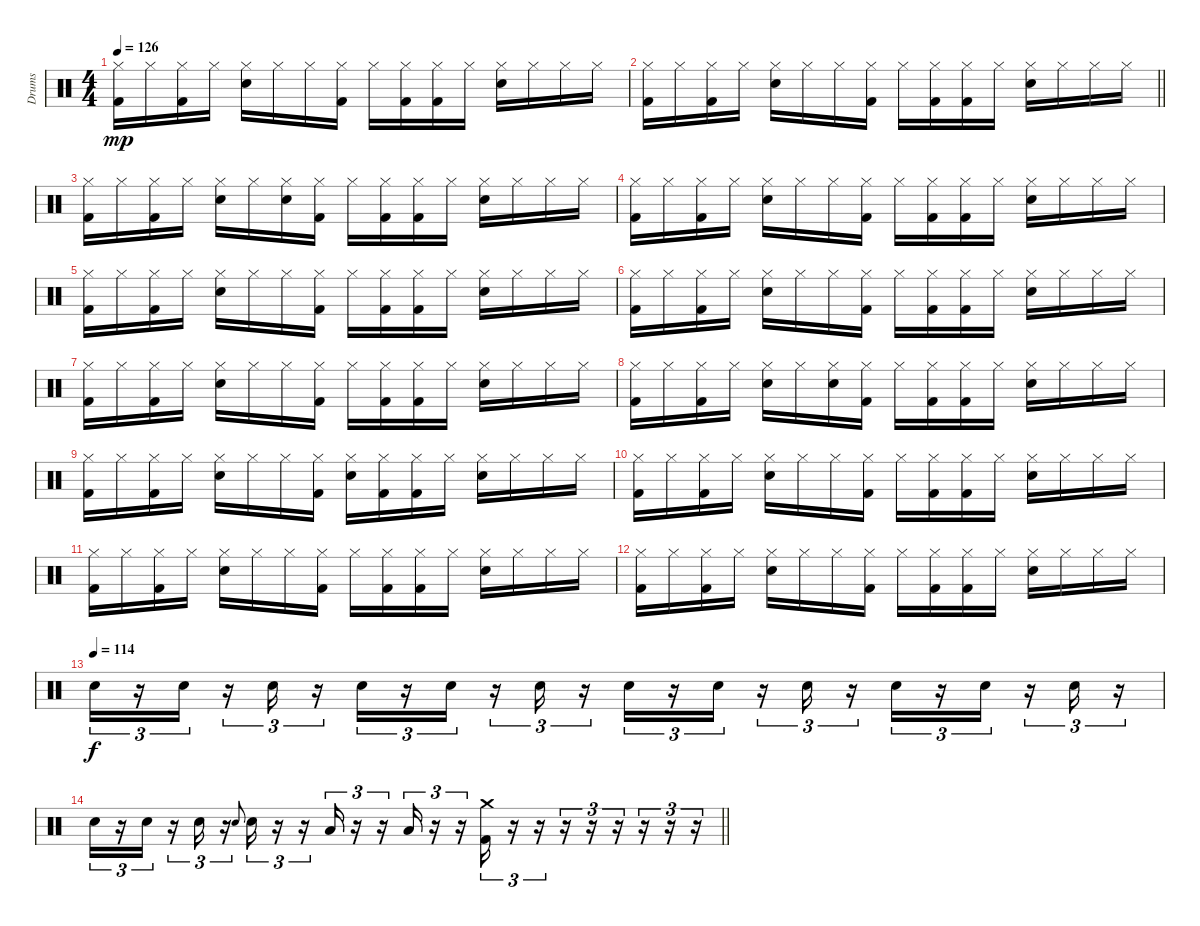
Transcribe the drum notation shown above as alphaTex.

\track ("Drums" "Drums") {instrument percussion}
\staff {score}
\articulation defaults
\ts (4 4)
\tempo 126
\clef neutral
\ks c
("Hi-Hat (closed)" "Kick (hit) 2").16{dy mp} "Hi-Hat (closed)".16 ("Hi-Hat (closed)" "Kick (hit) 2").16 "Hi-Hat (closed)".16 ("Hi-Hat (closed)" "Snare (hit) 2").16 "Hi-Hat (closed)".16 "Hi-Hat (closed)".16 ("Hi-Hat (closed)" "Kick (hit) 2").16 "Hi-Hat (closed)".16 ("Hi-Hat (closed)" "Kick (hit) 2").16 ("Hi-Hat (closed)" "Kick (hit) 2").16 "Hi-Hat (closed)".16 ("Hi-Hat (closed)" "Snare (hit) 2").16 "Hi-Hat (closed)".16 "Hi-Hat (closed)".16 "Hi-Hat (closed)".16 |
\barLineRight lightlight
("Hi-Hat (closed)" "Kick (hit) 2").16 "Hi-Hat (closed)".16 ("Hi-Hat (closed)" "Kick (hit) 2").16 "Hi-Hat (closed)".16 ("Hi-Hat (closed)" "Snare (hit) 2").16 "Hi-Hat (closed)".16 "Hi-Hat (closed)".16 ("Hi-Hat (closed)" "Kick (hit) 2").16 "Hi-Hat (closed)".16 ("Hi-Hat (closed)" "Kick (hit) 2").16 ("Hi-Hat (closed)" "Kick (hit) 2").16 "Hi-Hat (closed)".16 ("Hi-Hat (closed)" "Snare (hit) 2").16 "Hi-Hat (closed)".16 "Hi-Hat (closed)".16 "Hi-Hat (closed)".16 |
("Hi-Hat (closed)" "Kick (hit) 2").16 "Hi-Hat (closed)".16 ("Hi-Hat (closed)" "Kick (hit) 2").16 "Hi-Hat (closed)".16 ("Hi-Hat (closed)" "Snare (hit) 2").16 "Hi-Hat (closed)".16 ("Hi-Hat (closed)" "Snare (hit) 2").16 ("Hi-Hat (closed)" "Kick (hit) 2").16 "Hi-Hat (closed)".16 ("Hi-Hat (closed)" "Kick (hit) 2").16 ("Hi-Hat (closed)" "Kick (hit) 2").16 "Hi-Hat (closed)".16 ("Hi-Hat (closed)" "Snare (hit) 2").16 "Hi-Hat (closed)".16 "Hi-Hat (closed)".16 "Hi-Hat (closed)".16 |
("Hi-Hat (closed)" "Kick (hit) 2").16 "Hi-Hat (closed)".16 ("Hi-Hat (closed)" "Kick (hit) 2").16 "Hi-Hat (closed)".16 ("Hi-Hat (closed)" "Snare (hit) 2").16 "Hi-Hat (closed)".16 "Hi-Hat (closed)".16 ("Hi-Hat (closed)" "Kick (hit) 2").16 "Hi-Hat (closed)".16 ("Hi-Hat (closed)" "Kick (hit) 2").16 ("Hi-Hat (closed)" "Kick (hit) 2").16 "Hi-Hat (closed)".16 ("Hi-Hat (closed)" "Snare (hit) 2").16 "Hi-Hat (closed)".16 "Hi-Hat (closed)".16 "Hi-Hat (closed)".16 |
("Hi-Hat (closed)" "Kick (hit) 2").16 "Hi-Hat (closed)".16 ("Hi-Hat (closed)" "Kick (hit) 2").16 "Hi-Hat (closed)".16 ("Hi-Hat (closed)" "Snare (hit) 2").16 "Hi-Hat (closed)".16 "Hi-Hat (closed)".16 ("Hi-Hat (closed)" "Kick (hit) 2").16 "Hi-Hat (closed)".16 ("Hi-Hat (closed)" "Kick (hit) 2").16 ("Hi-Hat (closed)" "Kick (hit) 2").16 "Hi-Hat (closed)".16 ("Hi-Hat (closed)" "Snare (hit) 2").16 "Hi-Hat (closed)".16 "Hi-Hat (closed)".16 "Hi-Hat (closed)".16 |
("Hi-Hat (closed)" "Kick (hit) 2").16 "Hi-Hat (closed)".16 ("Hi-Hat (closed)" "Kick (hit) 2").16 "Hi-Hat (closed)".16 ("Hi-Hat (closed)" "Snare (hit) 2").16 "Hi-Hat (closed)".16 "Hi-Hat (closed)".16 ("Hi-Hat (closed)" "Kick (hit) 2").16 "Hi-Hat (closed)".16 ("Hi-Hat (closed)" "Kick (hit) 2").16 ("Hi-Hat (closed)" "Kick (hit) 2").16 "Hi-Hat (closed)".16 ("Hi-Hat (closed)" "Snare (hit) 2").16 "Hi-Hat (closed)".16 "Hi-Hat (closed)".16 "Hi-Hat (closed)".16 |
("Hi-Hat (closed)" "Kick (hit) 2").16 "Hi-Hat (closed)".16 ("Hi-Hat (closed)" "Kick (hit) 2").16 "Hi-Hat (closed)".16 ("Hi-Hat (closed)" "Snare (hit) 2").16 "Hi-Hat (closed)".16 "Hi-Hat (closed)".16 ("Hi-Hat (closed)" "Kick (hit) 2").16 "Hi-Hat (closed)".16 ("Hi-Hat (closed)" "Kick (hit) 2").16 ("Hi-Hat (closed)" "Kick (hit) 2").16 "Hi-Hat (closed)".16 ("Hi-Hat (closed)" "Snare (hit) 2").16 "Hi-Hat (closed)".16 "Hi-Hat (closed)".16 "Hi-Hat (closed)".16 |
("Hi-Hat (closed)" "Kick (hit) 2").16 "Hi-Hat (closed)".16 ("Hi-Hat (closed)" "Kick (hit) 2").16 "Hi-Hat (closed)".16 ("Hi-Hat (closed)" "Snare (hit) 2").16 "Hi-Hat (closed)".16 ("Hi-Hat (closed)" "Snare (hit) 2").16 ("Hi-Hat (closed)" "Kick (hit) 2").16 "Hi-Hat (closed)".16 ("Hi-Hat (closed)" "Kick (hit) 2").16 ("Hi-Hat (closed)" "Kick (hit) 2").16 "Hi-Hat (closed)".16 ("Hi-Hat (closed)" "Snare (hit) 2").16 "Hi-Hat (closed)".16 "Hi-Hat (closed)".16 "Hi-Hat (closed)".16 |
("Hi-Hat (closed)" "Kick (hit) 2").16 "Hi-Hat (closed)".16 ("Hi-Hat (closed)" "Kick (hit) 2").16 "Hi-Hat (closed)".16 ("Hi-Hat (closed)" "Snare (hit) 2").16 "Hi-Hat (closed)".16 "Hi-Hat (closed)".16 ("Hi-Hat (closed)" "Kick (hit) 2").16 ("Hi-Hat (closed)" "Snare (hit) 2").16 ("Hi-Hat (closed)" "Kick (hit) 2").16 ("Hi-Hat (closed)" "Kick (hit) 2").16 "Hi-Hat (closed)".16 ("Hi-Hat (closed)" "Snare (hit) 2").16 "Hi-Hat (closed)".16 "Hi-Hat (closed)".16 "Hi-Hat (closed)".16 |
("Hi-Hat (closed)" "Kick (hit) 2").16 "Hi-Hat (closed)".16 ("Hi-Hat (closed)" "Kick (hit) 2").16 "Hi-Hat (closed)".16 ("Hi-Hat (closed)" "Snare (hit) 2").16 "Hi-Hat (closed)".16 "Hi-Hat (closed)".16 ("Hi-Hat (closed)" "Kick (hit) 2").16 "Hi-Hat (closed)".16 ("Hi-Hat (closed)" "Kick (hit) 2").16 ("Hi-Hat (closed)" "Kick (hit) 2").16 "Hi-Hat (closed)".16 ("Hi-Hat (closed)" "Snare (hit) 2").16 "Hi-Hat (closed)".16 "Hi-Hat (closed)".16 "Hi-Hat (closed)".16 |
("Hi-Hat (closed)" "Kick (hit) 2").16 "Hi-Hat (closed)".16 ("Hi-Hat (closed)" "Kick (hit) 2").16 "Hi-Hat (closed)".16 ("Hi-Hat (closed)" "Snare (hit) 2").16 "Hi-Hat (closed)".16 "Hi-Hat (closed)".16 ("Hi-Hat (closed)" "Kick (hit) 2").16 "Hi-Hat (closed)".16 ("Hi-Hat (closed)" "Kick (hit) 2").16 ("Hi-Hat (closed)" "Kick (hit) 2").16 "Hi-Hat (closed)".16 ("Hi-Hat (closed)" "Snare (hit) 2").16 "Hi-Hat (closed)".16 "Hi-Hat (closed)".16 "Hi-Hat (closed)".16 |
("Hi-Hat (closed)" "Kick (hit) 2").16 "Hi-Hat (closed)".16 ("Hi-Hat (closed)" "Kick (hit) 2").16 "Hi-Hat (closed)".16 ("Hi-Hat (closed)" "Snare (hit) 2").16 "Hi-Hat (closed)".16 "Hi-Hat (closed)".16 ("Hi-Hat (closed)" "Kick (hit) 2").16 "Hi-Hat (closed)".16 ("Hi-Hat (closed)" "Kick (hit) 2").16 ("Hi-Hat (closed)" "Kick (hit) 2").16 "Hi-Hat (closed)".16 ("Hi-Hat (closed)" "Snare (hit) 2").16 "Hi-Hat (closed)".16 "Hi-Hat (closed)".16 "Hi-Hat (closed)".16 |
\tempo (114)
"Snare (hit) 2".16{tu (3 2) dy f} r.16{tu (3 2)} "Snare (hit) 2".16{tu (3 2)} r.16{tu (3 2)} "Snare (hit) 2".16{tu (3 2)} r.16{tu (3 2)} "Snare (hit) 2".16{tu (3 2)} r.16{tu (3 2)} "Snare (hit) 2".16{tu (3 2)} r.16{tu (3 2)} "Snare (hit) 2".16{tu (3 2)} r.16{tu (3 2)} "Snare (hit) 2".16{tu (3 2)} r.16{tu (3 2)} "Snare (hit) 2".16{tu (3 2)} r.16{tu (3 2)} "Snare (hit) 2".16{tu (3 2)} r.16{tu (3 2)} "Snare (hit) 2".16{tu (3 2)} r.16{tu (3 2)} "Snare (hit) 2".16{tu (3 2)} r.16{tu (3 2)} "Snare (hit) 2".16{tu (3 2)} r.16{tu (3 2)} |
\barLineRight lightlight "Snare (hit) 2".16{tu (3 2)}
r.16{tu (3 2)} "Snare (hit) 2".16{tu (3 2)} r.16{tu (3 2)} "Snare (hit) 2".16{tu (3 2)} r.16{tu (3 2)} "Snare (hit) 2".8{gr onbeat} "Snare (hit) 2".16{tu (3 2)} r.16{tu (3 2)} r.16{tu (3 2)} "Low Tom (hit)".16{tu (3 2)} r.16{tu (3 2)} r.16{tu (3 2)} "Low Tom (hit)".16{tu (3 2)} r.16{tu (3 2)} r.16{tu (3 2)} ("Crash medium (hit)" "Kick (hit) 2").16{tu (3 2)} r.16{tu (3 2)} r.16{tu (3 2)} r.16{tu (3 2)} r.16{tu (3 2)} r.16{tu (3 2)} r.16{tu (3 2)} r.16{tu (3 2)} r.16{tu (3 2)}
